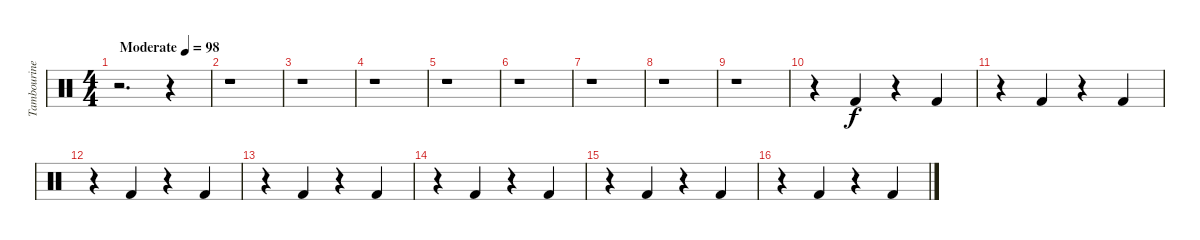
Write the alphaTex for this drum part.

\track ("Tambourine" "Tambourine") {instrument percussion}
\staff {score}
\articulation defaults
\ts (4 4)
\tempo (98 "Moderate")
\clef neutral
\ks c
r.2{d dy f} r.4 |
r.1 |
r.1 |
r.1 |
r.1 |
r.1 |
r.1 |
r.1 |
r.1 |
r.4 "Kick (hit) 2".4 r.4 "Kick (hit) 2".4 |
r.4 "Kick (hit) 2".4 r.4 "Kick (hit) 2".4 |
r.4 "Kick (hit) 2".4 r.4 "Kick (hit) 2".4 |
r.4 "Kick (hit) 2".4 r.4 "Kick (hit) 2".4 |
r.4 "Kick (hit) 2".4 r.4 "Kick (hit) 2".4 |
r.4 "Kick (hit) 2".4 r.4 "Kick (hit) 2".4 |
r.4 "Kick (hit) 2".4 r.4 "Kick (hit) 2".4
